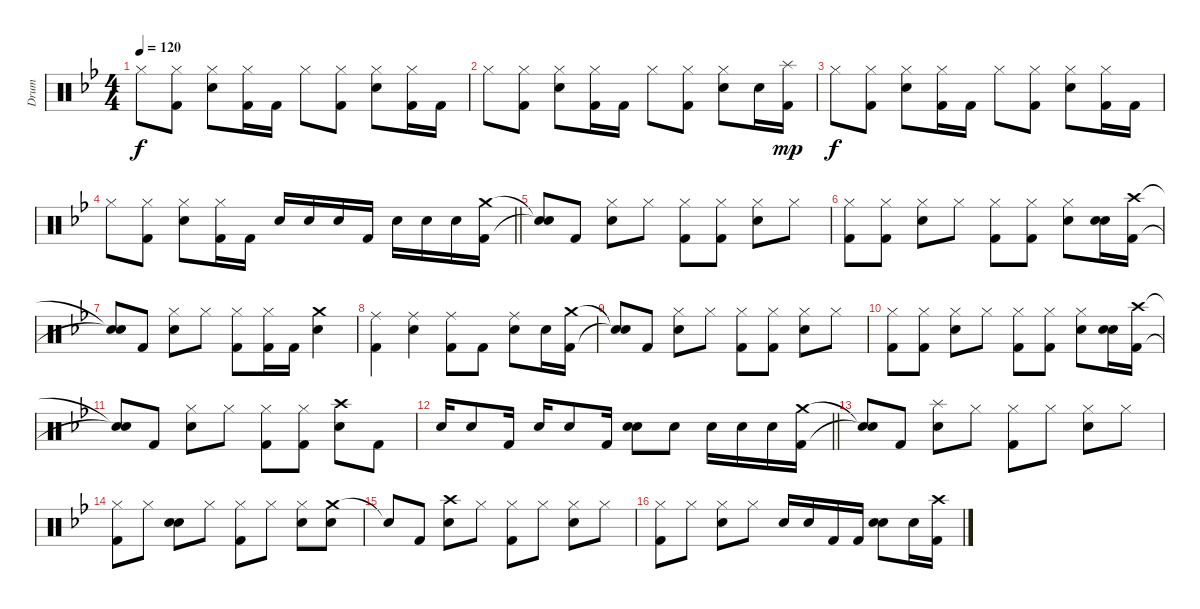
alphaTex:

\track ("Drum" "Drum") {instrument percussion}
\staff {score}
\articulation defaults
\ts (4 4)
\tempo 120
\clef neutral
\ks gminor "Hi-Hat (closed)".8{dy f}
("Hi-Hat (closed)" "Kick (hit) 2").8 ("Hi-Hat (closed)" "Electric Snare (hit)").8 ("Hi-Hat (closed)" "Kick (hit) 2").16 "Kick (hit) 2".16 "Hi-Hat (closed)".8 ("Hi-Hat (closed)" "Kick (hit) 2").8 ("Hi-Hat (closed)" "Electric Snare (hit)").8 ("Hi-Hat (closed)" "Kick (hit) 2").16 "Kick (hit) 2".16 |
"Hi-Hat (closed)".8 ("Hi-Hat (closed)" "Kick (hit) 2").8 ("Hi-Hat (closed)" "Electric Snare (hit)").8 ("Hi-Hat (closed)" "Kick (hit) 2").16 "Kick (hit) 2".16 "Hi-Hat (closed)".8 ("Hi-Hat (closed)" "Kick (hit) 2").8 ("Hi-Hat (closed)" "Electric Snare (hit)").8 "Electric Snare (hit)".16 ("Splash (hit)" "Kick (hit) 2").16{dy mp} |
"Hi-Hat (closed)".8{dy f} ("Hi-Hat (closed)" "Kick (hit) 2").8 ("Hi-Hat (closed)" "Electric Snare (hit)").8 ("Hi-Hat (closed)" "Kick (hit) 2").16 "Kick (hit) 2".16 "Hi-Hat (closed)".8 ("Hi-Hat (closed)" "Kick (hit) 2").8 ("Hi-Hat (closed)" "Electric Snare (hit)").8 ("Hi-Hat (closed)" "Kick (hit) 2").16 "Kick (hit) 2".16 |
\barLineRight lightlight "Hi-Hat (closed)".8
("Hi-Hat (closed)" "Kick (hit) 2").8 ("Hi-Hat (closed)" "Electric Snare (hit)").8 ("Hi-Hat (closed)" "Kick (hit) 2").16 "Kick (hit) 2".16 "Electric Snare (hit)".16 "Electric Snare (hit)".16 "Electric Snare (hit)".16 "Kick (hit) 2".16 "Electric Snare (hit)".16 "Electric Snare (hit)".16 "Electric Snare (hit)".16 ("Crash medium (hit)" "Kick (hit) 2").16 |
("Snare (hit)"{t} "Snare (hit)"{t}).8 "Kick (hit) 2".8 ("Hi-Hat (closed)" "Electric Snare (hit)").8 "Hi-Hat (closed)".8 ("Hi-Hat (closed)" "Kick (hit) 2").8 ("Hi-Hat (closed)" "Kick (hit) 2").8 ("Hi-Hat (closed)" "Electric Snare (hit)").8 "Hi-Hat (closed)".8 |
("Hi-Hat (closed)" "Kick (hit) 2").8 ("Hi-Hat (closed)" "Kick (hit) 2").8 ("Hi-Hat (closed)" "Electric Snare (hit)").8 "Hi-Hat (closed)".8 ("Hi-Hat (closed)" "Kick (hit) 2").8 ("Hi-Hat (closed)" "Kick (hit) 2").8 ("Hi-Hat (closed)" "Electric Snare (hit)").8 ("Electric Snare (hit)" "Electric Snare (hit)").16 ("Crash high (hit)" "Kick (hit) 2").16 |
("Snare (hit)"{t} "Snare (hit)"{t}).8 "Kick (hit) 2".8 ("Hi-Hat (closed)" "Electric Snare (hit)").8 "Hi-Hat (closed)".8 ("Hi-Hat (closed)" "Kick (hit) 2").8 ("Hi-Hat (closed)" "Kick (hit) 2").16 "Kick (hit) 2".16 ("Crash medium (hit)" "Electric Snare (hit)").4 |
("Ride (middle)" "Kick (hit) 2").4 ("Ride (middle)" "Electric Snare (hit)").4 ("Ride (middle)" "Kick (hit) 2").8 "Kick (hit) 2".8 ("Ride (middle)" "Electric Snare (hit)").8 "Electric Snare (hit)".16 ("Crash medium (hit)" "Kick (hit) 2").16 |
("Snare (hit)"{t} "Snare (hit)"{t}).8 "Kick (hit) 2".8 ("Hi-Hat (closed)" "Electric Snare (hit)").8 "Hi-Hat (closed)".8 ("Hi-Hat (closed)" "Kick (hit) 2").8 ("Hi-Hat (closed)" "Kick (hit) 2").8 ("Hi-Hat (closed)" "Electric Snare (hit)").8 "Hi-Hat (closed)".8 |
("Hi-Hat (closed)" "Kick (hit) 2").8 ("Hi-Hat (closed)" "Kick (hit) 2").8 ("Hi-Hat (closed)" "Electric Snare (hit)").8 "Hi-Hat (closed)".8 ("Hi-Hat (closed)" "Kick (hit) 2").8 ("Hi-Hat (closed)" "Kick (hit) 2").8 ("Hi-Hat (closed)" "Electric Snare (hit)").8 ("Electric Snare (hit)" "Electric Snare (hit)").16 ("Crash high (hit)" "Kick (hit) 2").16 |
("Snare (hit)"{t} "Snare (hit)"{t}).8 "Kick (hit) 2".8 ("Hi-Hat (closed)" "Electric Snare (hit)").8 "Hi-Hat (closed)".8 ("Hi-Hat (closed)" "Kick (hit) 2").8 ("Hi-Hat (closed)" "Kick (hit) 2").8 ("Crash high (hit)" "Electric Snare (hit)").8 "Kick (hit) 2".8 |
\barLineRight lightlight "Electric Snare (hit)".16 "Electric Snare (hit)".8 "Kick (hit) 2".16 "Electric Snare (hit)".16 "Electric Snare (hit)".8 "Kick (hit) 2".16
("Electric Snare (hit)" "Electric Snare (hit)").8{bd 120} "Electric Snare (hit)".8 "Electric Snare (hit)".16 "Electric Snare (hit)".16 "Electric Snare (hit)".16 ("Crash medium (hit)" "Kick (hit) 2").16 |
("Snare (hit)"{t} "Snare (hit)"{t}).8 "Kick (hit) 2".8 ("Splash (hit)" "Electric Snare (hit)").8 "Hi-Hat (closed)".8 ("Hi-Hat (closed)" "Kick (hit) 2").8 "Hi-Hat (closed)".8 ("Hi-Hat (closed)" "Electric Snare (hit)").8 "Hi-Hat (closed)".8 |
("Hi-Hat (closed)" "Kick (hit) 2").8 "Hi-Hat (closed)".8 ("Snare (hit)" "Electric Snare (hit)").8 "Hi-Hat (closed)".8 ("Hi-Hat (closed)" "Kick (hit) 2").8 "Hi-Hat (closed)".8 ("Hi-Hat (closed)" "Electric Snare (hit)").8 ("Crash medium (hit)" "Electric Snare (hit)").8 |
"Snare (hit)"{t}.8 "Kick (hit) 2".8 ("Crash high (hit)" "Electric Snare (hit)").8 "Hi-Hat (closed)".8 ("Hi-Hat (closed)" "Kick (hit) 2").8 "Hi-Hat (closed)".8 ("Hi-Hat (closed)" "Electric Snare (hit)").8 "Hi-Hat (closed)".8 |
("Hi-Hat (closed)" "Kick (hit) 2").8 "Hi-Hat (closed)".8 ("Hi-Hat (closed)" "Electric Snare (hit)").8 "Hi-Hat (closed)".8 "Electric Snare (hit)".16 "Electric Snare (hit)".16 "Kick (hit) 2".16 "Kick (hit) 2".16 ("Electric Snare (hit)" "Electric Snare (hit)").8{bd 120} "Electric Snare (hit)".16 ("Crash high (hit)" "Kick (hit) 2").16
